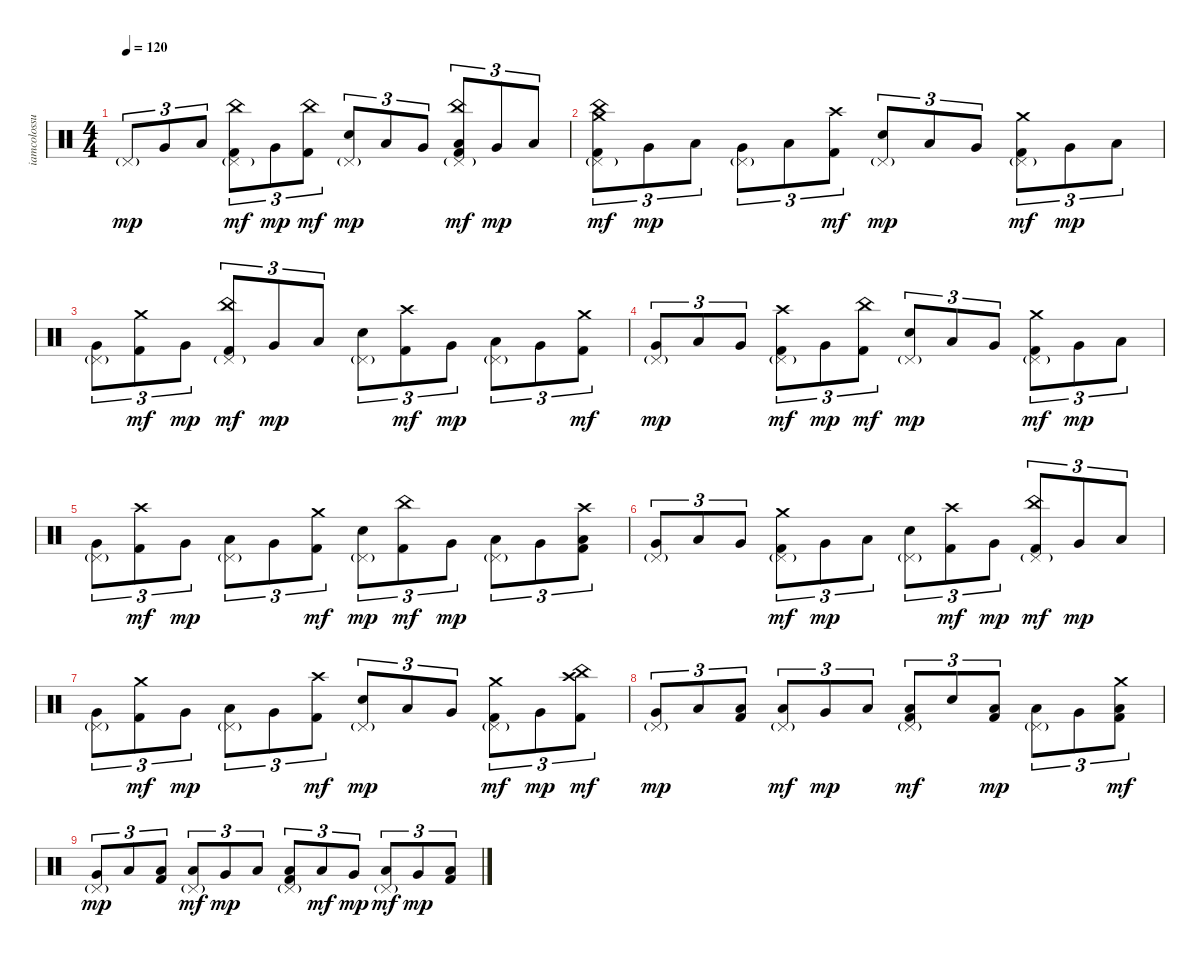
\track ("iamcolossus(Thomas Haake)" "iamcolossu") {instrument percussion}
\staff {score}
\articulation defaults
\ts (4 4)
\tempo 120
\clef neutral
\ks c "Pedal Hi-Hat (hit)"{g}.8{tu (3 2) dy mp} "Very Low Tom (hit)".8{tu (3 2)} "Low Floor Tom (hit)".8{tu (3 2)}
("Pedal Hi-Hat (hit)"{g} "China (hit)" "Kick (hit) 2").8{tu (3 2) dy mf} "Very Low Tom (hit)".8{tu (3 2) dy mp} ("China (hit)" "Kick (hit) 2").8{tu (3 2) dy mf} ("Pedal Hi-Hat (hit)"{g} "Electric Snare (hit)").8{tu (3 2) dy mp} "Low Floor Tom (hit)".8{tu (3 2)} "Very Low Tom (hit)".8{tu (3 2)} ("Pedal Hi-Hat (hit)"{g} "China (hit)" "Low Floor Tom (hit)" "Kick (hit) 2").8{tu (3 2) dy mf} "Very Low Tom (hit)".8{tu (3 2) dy mp} "Low Floor Tom (hit)".8{tu (3 2)} |
("Pedal Hi-Hat (hit)"{g} "Crash medium (hit)" "China (hit)" "Kick (hit) 2").8{tu (3 2) dy mf} "Very Low Tom (hit)".8{tu (3 2) dy mp} "Low Floor Tom (hit)".8{tu (3 2)} ("Pedal Hi-Hat (hit)"{g} "Very Low Tom (hit)").8{tu (3 2)} "Low Floor Tom (hit)".8{tu (3 2)} ("Crash high (hit)" "Kick (hit) 2").8{tu (3 2) dy mf} ("Pedal Hi-Hat (hit)"{g} "Electric Snare (hit)").8{tu (3 2) dy mp} "Low Floor Tom (hit)".8{tu (3 2)} "Very Low Tom (hit)".8{tu (3 2)} ("Pedal Hi-Hat (hit)"{g} "Crash medium (hit)" "Kick (hit) 2").8{tu (3 2) dy mf} "Very Low Tom (hit)".8{tu (3 2) dy mp} "Low Floor Tom (hit)".8{tu (3 2)} |
("Pedal Hi-Hat (hit)"{g} "Very Low Tom (hit)").8{tu (3 2)} ("Crash medium (hit)" "Kick (hit) 2").8{tu (3 2) dy mf} "Very Low Tom (hit)".8{tu (3 2) dy mp} ("Pedal Hi-Hat (hit)"{g} "China (hit)" "Kick (hit) 2").8{tu (3 2) dy mf} "Very Low Tom (hit)".8{tu (3 2) dy mp} "Low Floor Tom (hit)".8{tu (3 2)} ("Pedal Hi-Hat (hit)"{g} "Electric Snare (hit)").8{tu (3 2)} ("Crash high (hit)" "Kick (hit) 2").8{tu (3 2) dy mf} "Very Low Tom (hit)".8{tu (3 2) dy mp} ("Pedal Hi-Hat (hit)"{g} "Low Floor Tom (hit)").8{tu (3 2)} "Very Low Tom (hit)".8{tu (3 2)} ("Crash medium (hit)" "Kick (hit) 2").8{tu (3 2) dy mf} |
("Pedal Hi-Hat (hit)"{g} "Very Low Tom (hit)").8{tu (3 2) dy mp} "Low Floor Tom (hit)".8{tu (3 2)} "Very Low Tom (hit)".8{tu (3 2)} ("Pedal Hi-Hat (hit)"{g} "Crash high (hit)" "Kick (hit) 2").8{tu (3 2) dy mf} "Very Low Tom (hit)".8{tu (3 2) dy mp} ("China (hit)" "Kick (hit) 2").8{tu (3 2) dy mf} ("Pedal Hi-Hat (hit)"{g} "Electric Snare (hit)").8{tu (3 2) dy mp} "Low Floor Tom (hit)".8{tu (3 2)} "Very Low Tom (hit)".8{tu (3 2)} ("Pedal Hi-Hat (hit)"{g} "Crash medium (hit)" "Kick (hit) 2").8{tu (3 2) dy mf} "Very Low Tom (hit)".8{tu (3 2) dy mp} "Low Floor Tom (hit)".8{tu (3 2)} |
("Pedal Hi-Hat (hit)"{g} "Very Low Tom (hit)").8{tu (3 2)} ("Crash high (hit)" "Kick (hit) 2").8{tu (3 2) dy mf} "Very Low Tom (hit)".8{tu (3 2) dy mp} ("Pedal Hi-Hat (hit)"{g} "Low Floor Tom (hit)").8{tu (3 2)} "Very Low Tom (hit)".8{tu (3 2)} ("Crash medium (hit)" "Kick (hit) 2").8{tu (3 2) dy mf} ("Pedal Hi-Hat (hit)"{g} "Electric Snare (hit)").8{tu (3 2) dy mp} ("China (hit)" "Kick (hit) 2").8{tu (3 2) dy mf} "Very Low Tom (hit)".8{tu (3 2) dy mp} ("Pedal Hi-Hat (hit)"{g} "Low Floor Tom (hit)").8{tu (3 2)} "Very Low Tom (hit)".8{tu (3 2)} ("Crash high (hit)" "Low Floor Tom (hit)" "Kick (hit) 2").8{tu (3 2)} |
("Pedal Hi-Hat (hit)"{g} "Very Low Tom (hit)").8{tu (3 2)} "Low Floor Tom (hit)".8{tu (3 2)} "Very Low Tom (hit)".8{tu (3 2)} ("Pedal Hi-Hat (hit)"{g} "Crash medium (hit)" "Kick (hit) 2").8{tu (3 2) dy mf} "Very Low Tom (hit)".8{tu (3 2) dy mp} "Low Floor Tom (hit)".8{tu (3 2)} ("Pedal Hi-Hat (hit)"{g} "Electric Snare (hit)").8{tu (3 2)} ("Crash high (hit)" "Kick (hit) 2").8{tu (3 2) dy mf} "Very Low Tom (hit)".8{tu (3 2) dy mp} ("Pedal Hi-Hat (hit)"{g} "China (hit)" "Kick (hit) 2").8{tu (3 2) dy mf} "Very Low Tom (hit)".8{tu (3 2) dy mp} "Low Floor Tom (hit)".8{tu (3 2)} |
("Pedal Hi-Hat (hit)"{g} "Very Low Tom (hit)").8{tu (3 2)} ("Crash medium (hit)" "Kick (hit) 2").8{tu (3 2) dy mf} "Very Low Tom (hit)".8{tu (3 2) dy mp} ("Pedal Hi-Hat (hit)"{g} "Low Floor Tom (hit)").8{tu (3 2)} "Very Low Tom (hit)".8{tu (3 2)} ("Crash high (hit)" "Kick (hit) 2").8{tu (3 2) dy mf} ("Pedal Hi-Hat (hit)"{g} "Electric Snare (hit)").8{tu (3 2) dy mp} "Low Floor Tom (hit)".8{tu (3 2)} "Very Low Tom (hit)".8{tu (3 2)} ("Pedal Hi-Hat (hit)"{g} "Crash medium (hit)" "Kick (hit) 2").8{tu (3 2) dy mf} "Very Low Tom (hit)".8{tu (3 2) dy mp} ("Crash high (hit)" "China (hit)" "Kick (hit) 2").8{tu (3 2) dy mf} |
("Pedal Hi-Hat (hit)"{g} "Very Low Tom (hit)").8{tu (3 2) dy mp} "Low Floor Tom (hit)".8{tu (3 2)} ("Low Floor Tom (hit)" "Kick (hit) 2").8{tu (3 2)} ("Pedal Hi-Hat (hit)"{g} "Low Floor Tom (hit)").8{tu (3 2) dy mf} "Very Low Tom (hit)".8{tu (3 2) dy mp} "Low Floor Tom (hit)".8{tu (3 2)} ("Pedal Hi-Hat (hit)"{g} "Low Floor Tom (hit)" "Kick (hit) 2").8{tu (3 2) dy mf} "Electric Snare (hit)".8{tu (3 2)} ("Low Floor Tom (hit)" "Kick (hit) 2").8{tu (3 2) dy mp} ("Pedal Hi-Hat (hit)"{g} "Low Floor Tom (hit)").8{tu (3 2)} "Very Low Tom (hit)".8{tu (3 2)} ("Crash medium (hit)" "Low Floor Tom (hit)" "Kick (hit) 2").8{tu (3 2) dy mf} |
("Pedal Hi-Hat (hit)"{g} "Very Low Tom (hit)").8{tu (3 2) dy mp} "Low Floor Tom (hit)".8{tu (3 2)} ("Low Floor Tom (hit)" "Kick (hit) 2").8{tu (3 2)} ("Pedal Hi-Hat (hit)"{g} "Low Floor Tom (hit)").8{tu (3 2) dy mf} "Very Low Tom (hit)".8{tu (3 2) dy mp} "Low Floor Tom (hit)".8{tu (3 2)} ("Pedal Hi-Hat (hit)"{g} "Low Floor Tom (hit)" "Kick (hit) 2").8{tu (3 2)} "Low Floor Tom (hit)".8{tu (3 2) dy mf} "Very Low Tom (hit)".8{tu (3 2) dy mp} ("Pedal Hi-Hat (hit)"{g} "Low Floor Tom (hit)").8{tu (3 2) dy mf} "Very Low Tom (hit)".8{tu (3 2) dy mp} ("Low Floor Tom (hit)" "Kick (hit) 2").8{tu (3 2)}
